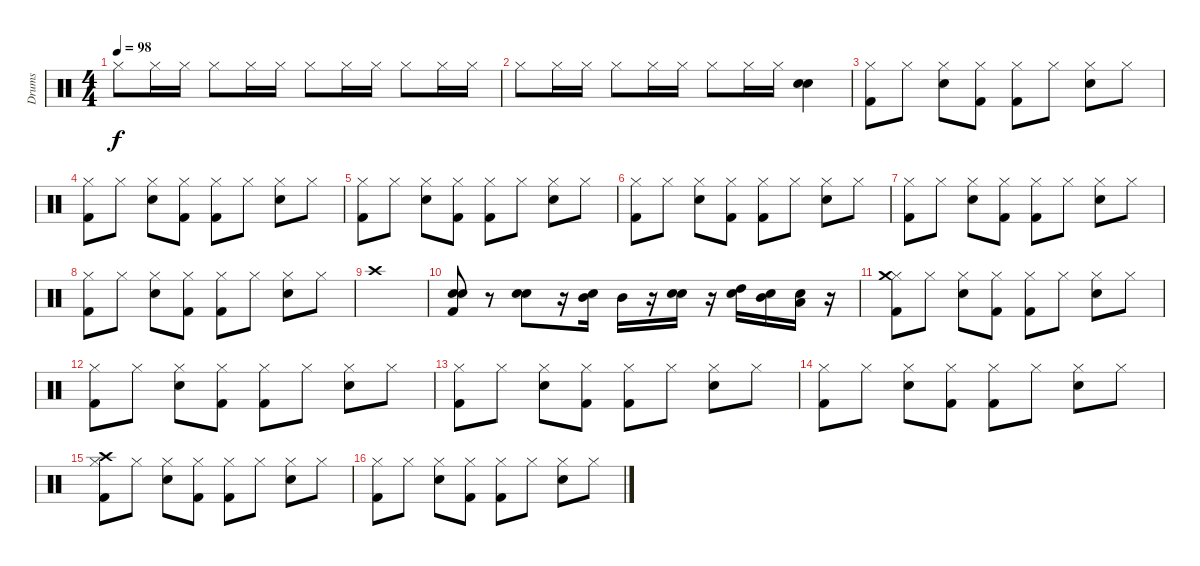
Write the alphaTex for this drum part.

\track ("Drums" "Drums") {instrument percussion}
\staff {score}
\articulation defaults
\ts (4 4)
\tempo 98
\clef neutral
\ks c "Hi-Hat (closed)".8{dy f} "Hi-Hat (closed)".16 "Hi-Hat (closed)".16 "Hi-Hat (closed)".8 "Hi-Hat (closed)".16 "Hi-Hat (closed)".16 "Hi-Hat (closed)".8 "Hi-Hat (closed)".16 "Hi-Hat (closed)".16 "Hi-Hat (closed)".8 "Hi-Hat (closed)".16 "Hi-Hat (closed)".16
|
"Hi-Hat (closed)".8 "Hi-Hat (closed)".16 "Hi-Hat (closed)".16 "Hi-Hat (closed)".8 "Hi-Hat (closed)".16 "Hi-Hat (closed)".16 "Hi-Hat (closed)".8 "Hi-Hat (closed)".16 "Hi-Hat (closed)".16 ("Electric Snare (hit)" "Electric Snare (hit)").4 |
("Hi-Hat (closed)" "Kick (hit) 2").8 "Hi-Hat (closed)".8 ("Hi-Hat (closed)" "Electric Snare (hit)").8 ("Hi-Hat (closed)" "Kick (hit) 2").8 ("Hi-Hat (closed)" "Kick (hit) 2").8 "Hi-Hat (closed)".8 ("Hi-Hat (closed)" "Electric Snare (hit)").8 "Hi-Hat (closed)".8 |
("Hi-Hat (closed)" "Kick (hit) 2").8 "Hi-Hat (closed)".8 ("Hi-Hat (closed)" "Electric Snare (hit)").8 ("Hi-Hat (closed)" "Kick (hit) 2").8 ("Hi-Hat (closed)" "Kick (hit) 2").8 "Hi-Hat (closed)".8 ("Hi-Hat (closed)" "Electric Snare (hit)").8 "Hi-Hat (closed)".8 |
("Hi-Hat (closed)" "Kick (hit) 2").8 "Hi-Hat (closed)".8 ("Hi-Hat (closed)" "Electric Snare (hit)").8 ("Hi-Hat (closed)" "Kick (hit) 2").8 ("Hi-Hat (closed)" "Kick (hit) 2").8 "Hi-Hat (closed)".8 ("Hi-Hat (closed)" "Electric Snare (hit)").8 "Hi-Hat (closed)".8 |
("Hi-Hat (closed)" "Kick (hit) 2").8 "Hi-Hat (closed)".8 ("Hi-Hat (closed)" "Electric Snare (hit)").8 ("Hi-Hat (closed)" "Kick (hit) 2").8 ("Hi-Hat (closed)" "Kick (hit) 2").8 "Hi-Hat (closed)".8 ("Hi-Hat (closed)" "Electric Snare (hit)").8 "Hi-Hat (closed)".8 |
("Hi-Hat (closed)" "Kick (hit) 2").8 "Hi-Hat (closed)".8 ("Hi-Hat (closed)" "Electric Snare (hit)").8 ("Hi-Hat (closed)" "Kick (hit) 2").8 ("Hi-Hat (closed)" "Kick (hit) 2").8 "Hi-Hat (closed)".8 ("Hi-Hat (closed)" "Electric Snare (hit)").8 "Hi-Hat (closed)".8 |
("Hi-Hat (closed)" "Kick (hit) 2").8 "Hi-Hat (closed)".8 ("Hi-Hat (closed)" "Electric Snare (hit)").8 ("Hi-Hat (closed)" "Kick (hit) 2").8 ("Hi-Hat (closed)" "Kick (hit) 2").8 "Hi-Hat (closed)".8 ("Hi-Hat (closed)" "Electric Snare (hit)").8 "Hi-Hat (closed)".8 |
"Crash high (hit)".1 |
("Electric Snare (hit)" "Electric Snare (hit)" "Kick (hit) 2").8 r.8 ("Electric Snare (hit)" "Electric Snare (hit)").8 r.16 ("Mid Tom (hit)" "Electric Snare (hit)").16 "Mid Tom (hit)".16 r.16 ("Electric Snare (hit)" "Electric Snare (hit)").16 r.16 ("Electric Snare (hit)" "High Tom (hit)").16 ("Electric Snare (hit)" "Mid Tom (hit)").16 ("Electric Snare (hit)" "Low Tom (hit)").16 r.16 |
("Hi-Hat (closed)" "Crash medium (hit)" "Kick (hit) 2").8 "Hi-Hat (closed)".8 ("Hi-Hat (closed)" "Electric Snare (hit)").8 ("Hi-Hat (closed)" "Kick (hit) 2").8 ("Hi-Hat (closed)" "Kick (hit) 2").8 "Hi-Hat (closed)".8 ("Hi-Hat (closed)" "Electric Snare (hit)").8 "Hi-Hat (closed)".8 |
("Hi-Hat (closed)" "Kick (hit) 2").8 "Hi-Hat (closed)".8 ("Hi-Hat (closed)" "Electric Snare (hit)").8 ("Hi-Hat (closed)" "Kick (hit) 2").8 ("Hi-Hat (closed)" "Kick (hit) 2").8 "Hi-Hat (closed)".8 ("Hi-Hat (closed)" "Electric Snare (hit)").8 "Hi-Hat (closed)".8 |
("Hi-Hat (closed)" "Kick (hit) 2").8 "Hi-Hat (closed)".8 ("Hi-Hat (closed)" "Electric Snare (hit)").8 ("Hi-Hat (closed)" "Kick (hit) 2").8 ("Hi-Hat (closed)" "Kick (hit) 2").8 "Hi-Hat (closed)".8 ("Hi-Hat (closed)" "Electric Snare (hit)").8 "Hi-Hat (closed)".8 |
("Hi-Hat (closed)" "Kick (hit) 2").8 "Hi-Hat (closed)".8 ("Hi-Hat (closed)" "Electric Snare (hit)").8 ("Hi-Hat (closed)" "Kick (hit) 2").8 ("Hi-Hat (closed)" "Kick (hit) 2").8 "Hi-Hat (closed)".8 ("Hi-Hat (closed)" "Electric Snare (hit)").8 "Hi-Hat (closed)".8 |
("Hi-Hat (closed)" "Crash high (hit)" "Kick (hit) 2").8 "Hi-Hat (closed)".8 ("Hi-Hat (closed)" "Electric Snare (hit)").8 ("Hi-Hat (closed)" "Kick (hit) 2").8 ("Hi-Hat (closed)" "Kick (hit) 2").8 "Hi-Hat (closed)".8 ("Hi-Hat (closed)" "Electric Snare (hit)").8 "Hi-Hat (closed)".8 |
("Hi-Hat (closed)" "Kick (hit) 2").8 "Hi-Hat (closed)".8 ("Hi-Hat (closed)" "Electric Snare (hit)").8 ("Hi-Hat (closed)" "Kick (hit) 2").8 ("Hi-Hat (closed)" "Kick (hit) 2").8 "Hi-Hat (closed)".8 ("Hi-Hat (closed)" "Electric Snare (hit)").8 "Hi-Hat (closed)".8
